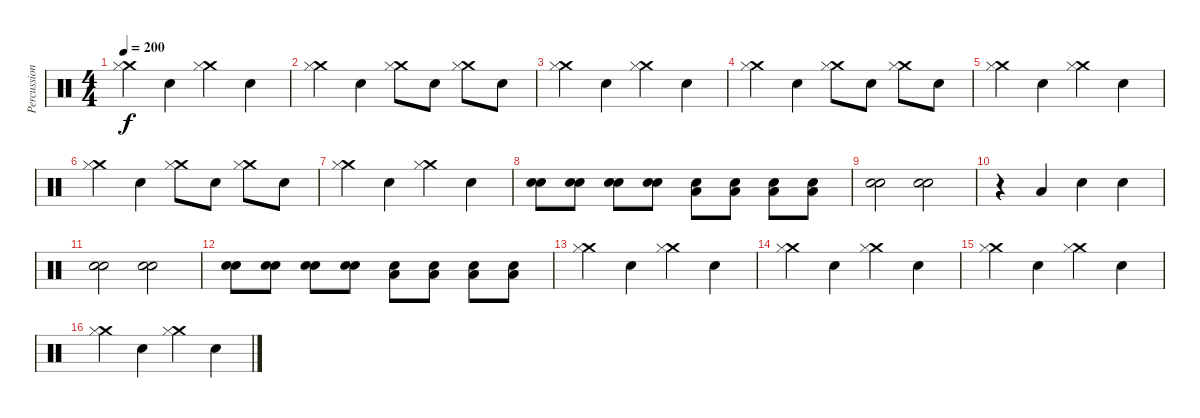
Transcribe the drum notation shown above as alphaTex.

\track ("Percussion" "Percussion") {instrument percussion}
\staff {score}
\articulation defaults
\ts (4 4)
\tempo 200
\clef neutral
\ks c
("Crash medium (hit)" "Hi-Hat (closed)").4{dy f} "Snare (hit) 2".4 ("Crash medium (hit)" "Hi-Hat (closed)").4 "Snare (hit) 2".4 |
("Crash medium (hit)" "Hi-Hat (closed)").4 "Snare (hit) 2".4 ("Crash medium (hit)" "Hi-Hat (closed)").8 "Snare (hit) 2".8 ("Crash medium (hit)" "Hi-Hat (closed)").8 "Snare (hit) 2".8 |
("Crash medium (hit)" "Hi-Hat (closed)").4 "Snare (hit) 2".4 ("Crash medium (hit)" "Hi-Hat (closed)").4 "Snare (hit) 2".4 |
("Crash medium (hit)" "Hi-Hat (closed)").4 "Snare (hit) 2".4 ("Crash medium (hit)" "Hi-Hat (closed)").8 "Snare (hit) 2".8 ("Crash medium (hit)" "Hi-Hat (closed)").8 "Snare (hit) 2".8 |
("Crash medium (hit)" "Hi-Hat (closed)").4 "Snare (hit) 2".4 ("Crash medium (hit)" "Hi-Hat (closed)").4 "Snare (hit) 2".4 |
("Crash medium (hit)" "Hi-Hat (closed)").4 "Snare (hit) 2".4 ("Crash medium (hit)" "Hi-Hat (closed)").8 "Snare (hit) 2".8 ("Crash medium (hit)" "Hi-Hat (closed)").8 "Snare (hit) 2".8 |
("Crash medium (hit)" "Hi-Hat (closed)").4 "Snare (hit) 2".4 ("Crash medium (hit)" "Hi-Hat (closed)").4 "Snare (hit) 2".4 |
("Snare (hit) 2" "Snare (hit) 2").8 ("Snare (hit) 2" "Snare (hit) 2").8 ("Snare (hit) 2" "Snare (hit) 2").8 ("Snare (hit) 2" "Snare (hit) 2").8 ("Low Floor Tom (hit)" "Snare (hit) 2").8 ("Low Floor Tom (hit)" "Snare (hit) 2").8 ("Low Floor Tom (hit)" "Snare (hit) 2").8 ("Low Floor Tom (hit)" "Snare (hit) 2").8 |
("Snare (hit) 2" "Snare (hit) 2").2 ("Snare (hit) 2" "Snare (hit) 2").2 |
r.4 "Low Floor Tom (hit)".4 "Snare (hit) 2".4 "Snare (hit) 2".4 |
("Snare (hit) 2" "Snare (hit) 2").2 ("Snare (hit) 2" "Snare (hit) 2").2 |
("Snare (hit) 2" "Snare (hit) 2").8 ("Snare (hit) 2" "Snare (hit) 2").8 ("Snare (hit) 2" "Snare (hit) 2").8 ("Snare (hit) 2" "Snare (hit) 2").8 ("Low Floor Tom (hit)" "Snare (hit) 2").8 ("Low Floor Tom (hit)" "Snare (hit) 2").8 ("Low Floor Tom (hit)" "Snare (hit) 2").8 ("Low Floor Tom (hit)" "Snare (hit) 2").8 |
("Crash medium (hit)" "Hi-Hat (closed)").4 "Snare (hit) 2".4 ("Crash medium (hit)" "Hi-Hat (closed)").4 "Snare (hit) 2".4 |
("Crash medium (hit)" "Hi-Hat (closed)").4 "Snare (hit) 2".4 ("Crash medium (hit)" "Hi-Hat (closed)").4 "Snare (hit) 2".4 |
("Crash medium (hit)" "Hi-Hat (closed)").4 "Snare (hit) 2".4 ("Crash medium (hit)" "Hi-Hat (closed)").4 "Snare (hit) 2".4 |
("Crash medium (hit)" "Hi-Hat (closed)").4 "Snare (hit) 2".4 ("Crash medium (hit)" "Hi-Hat (closed)").4 "Snare (hit) 2".4
